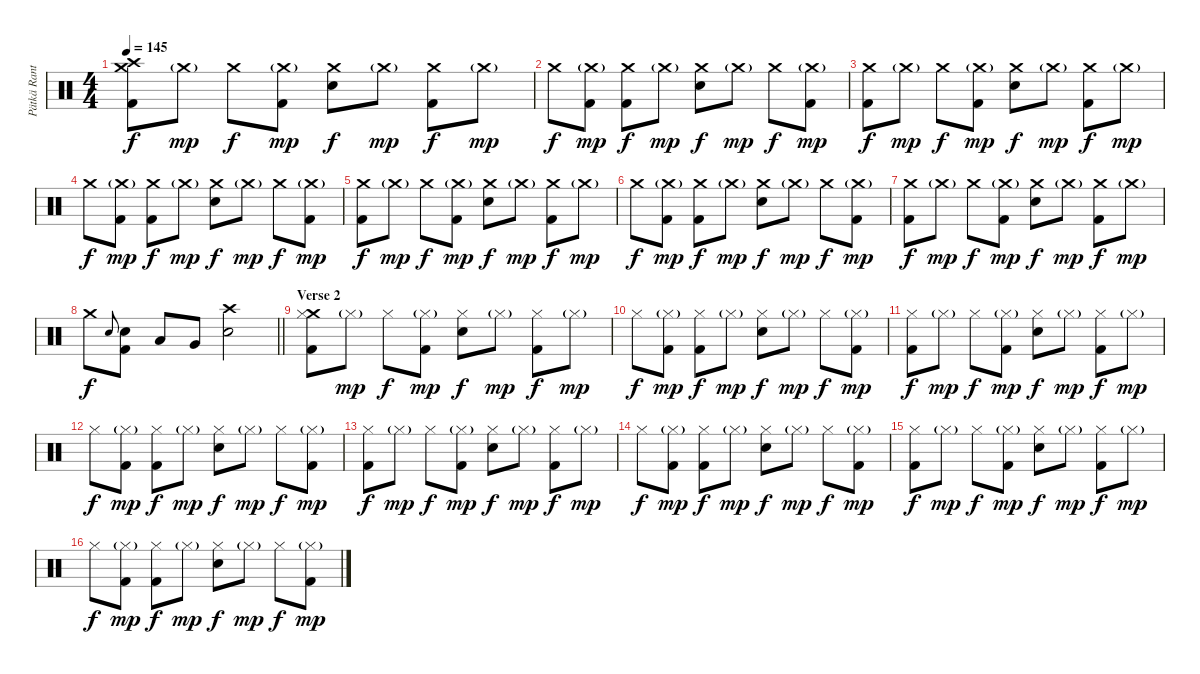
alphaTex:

\track ("Pätkä Rantala (Drums)" "Pätkä Rant") {instrument percussion}
\staff {score}
\articulation defaults
\ts (4 4)
\tempo 145
\clef neutral
\ks c
("Crash high (hit)" "Crash medium (hit)" "Kick (hit) 2").8{dy f} "Crash medium (hit)"{g}.8{dy mp} "Crash medium (hit)".8{dy f} ("Crash medium (hit)"{g} "Kick (hit) 2").8{dy mp} ("Crash medium (hit)" "Snare (hit) 2").8{dy f} "Crash medium (hit)"{g}.8{dy mp} ("Crash medium (hit)" "Kick (hit) 2").8{dy f} "Crash medium (hit)"{g}.8{dy mp} |
"Crash medium (hit)".8{dy f} ("Crash medium (hit)"{g} "Kick (hit) 2").8{dy mp} ("Crash medium (hit)" "Kick (hit) 2").8{dy f} "Crash medium (hit)"{g}.8{dy mp} ("Crash medium (hit)" "Snare (hit) 2").8{dy f} "Crash medium (hit)"{g}.8{dy mp} "Crash medium (hit)".8{dy f} ("Crash medium (hit)"{g} "Kick (hit) 2").8{dy mp} |
("Crash medium (hit)" "Kick (hit) 2").8{dy f} "Crash medium (hit)"{g}.8{dy mp} "Crash medium (hit)".8{dy f} ("Crash medium (hit)"{g} "Kick (hit) 2").8{dy mp} ("Crash medium (hit)" "Snare (hit) 2").8{dy f} "Crash medium (hit)"{g}.8{dy mp} ("Crash medium (hit)" "Kick (hit) 2").8{dy f} "Crash medium (hit)"{g}.8{dy mp} |
"Crash medium (hit)".8{dy f} ("Crash medium (hit)"{g} "Kick (hit) 2").8{dy mp} ("Crash medium (hit)" "Kick (hit) 2").8{dy f} "Crash medium (hit)"{g}.8{dy mp} ("Crash medium (hit)" "Snare (hit) 2").8{dy f} "Crash medium (hit)"{g}.8{dy mp} "Crash medium (hit)".8{dy f} ("Crash medium (hit)"{g} "Kick (hit) 2").8{dy mp} |
("Crash medium (hit)" "Kick (hit) 2").8{dy f} "Crash medium (hit)"{g}.8{dy mp} "Crash medium (hit)".8{dy f} ("Crash medium (hit)"{g} "Kick (hit) 2").8{dy mp} ("Crash medium (hit)" "Snare (hit) 2").8{dy f} "Crash medium (hit)"{g}.8{dy mp} ("Crash medium (hit)" "Kick (hit) 2").8{dy f} "Crash medium (hit)"{g}.8{dy mp} |
"Crash medium (hit)".8{dy f} ("Crash medium (hit)"{g} "Kick (hit) 2").8{dy mp} ("Crash medium (hit)" "Kick (hit) 2").8{dy f} "Crash medium (hit)"{g}.8{dy mp} ("Crash medium (hit)" "Snare (hit) 2").8{dy f} "Crash medium (hit)"{g}.8{dy mp} "Crash medium (hit)".8{dy f} ("Crash medium (hit)"{g} "Kick (hit) 2").8{dy mp} |
("Crash medium (hit)" "Kick (hit) 2").8{dy f} "Crash medium (hit)"{g}.8{dy mp} "Crash medium (hit)".8{dy f} ("Crash medium (hit)"{g} "Kick (hit) 2").8{dy mp} ("Crash medium (hit)" "Snare (hit) 2").8{dy f} "Crash medium (hit)"{g}.8{dy mp} ("Crash medium (hit)" "Kick (hit) 2").8{dy f} "Crash medium (hit)"{g}.8{dy mp} |
\barLineRight lightlight "Crash medium (hit)".8{dy f} "Snare (hit) 2".8{gr onbeat}
("Snare (hit) 2" "Kick (hit) 2").8 "Low Tom (hit)".8 "Very Low Tom (hit)".8 ("Crash high (hit)" "Snare (hit) 2").2 |
\section ("" "Verse 2")
("Crash medium (hit)" "Hi-Hat (closed)" "Kick (hit) 2").8 "Hi-Hat (closed)"{g}.8{dy mp} "Hi-Hat (closed)".8{dy f} ("Hi-Hat (closed)"{g} "Kick (hit) 2").8{dy mp} ("Hi-Hat (closed)" "Snare (hit) 2").8{dy f} "Hi-Hat (closed)"{g}.8{dy mp} ("Hi-Hat (closed)" "Kick (hit) 2").8{dy f} "Hi-Hat (closed)"{g}.8{dy mp} |
"Hi-Hat (closed)".8{dy f} ("Hi-Hat (closed)"{g} "Kick (hit) 2").8{dy mp} ("Hi-Hat (closed)" "Kick (hit) 2").8{dy f} "Hi-Hat (closed)"{g}.8{dy mp} ("Hi-Hat (closed)" "Snare (hit) 2").8{dy f} "Hi-Hat (closed)"{g}.8{dy mp} "Hi-Hat (closed)".8{dy f} ("Hi-Hat (closed)"{g} "Kick (hit) 2").8{dy mp} |
("Hi-Hat (closed)" "Kick (hit) 2").8{dy f} "Hi-Hat (closed)"{g}.8{dy mp} "Hi-Hat (closed)".8{dy f} ("Hi-Hat (closed)"{g} "Kick (hit) 2").8{dy mp} ("Hi-Hat (closed)" "Snare (hit) 2").8{dy f} "Hi-Hat (closed)"{g}.8{dy mp} ("Hi-Hat (closed)" "Kick (hit) 2").8{dy f} "Hi-Hat (closed)"{g}.8{dy mp} |
"Hi-Hat (closed)".8{dy f} ("Hi-Hat (closed)"{g} "Kick (hit) 2").8{dy mp} ("Hi-Hat (closed)" "Kick (hit) 2").8{dy f} "Hi-Hat (closed)"{g}.8{dy mp} ("Hi-Hat (closed)" "Snare (hit) 2").8{dy f} "Hi-Hat (closed)"{g}.8{dy mp} "Hi-Hat (closed)".8{dy f} ("Hi-Hat (closed)"{g} "Kick (hit) 2").8{dy mp} |
("Hi-Hat (closed)" "Kick (hit) 2").8{dy f} "Hi-Hat (closed)"{g}.8{dy mp} "Hi-Hat (closed)".8{dy f} ("Hi-Hat (closed)"{g} "Kick (hit) 2").8{dy mp} ("Hi-Hat (closed)" "Snare (hit) 2").8{dy f} "Hi-Hat (closed)"{g}.8{dy mp} ("Hi-Hat (closed)" "Kick (hit) 2").8{dy f} "Hi-Hat (closed)"{g}.8{dy mp} |
"Hi-Hat (closed)".8{dy f} ("Hi-Hat (closed)"{g} "Kick (hit) 2").8{dy mp} ("Hi-Hat (closed)" "Kick (hit) 2").8{dy f} "Hi-Hat (closed)"{g}.8{dy mp} ("Hi-Hat (closed)" "Snare (hit) 2").8{dy f} "Hi-Hat (closed)"{g}.8{dy mp} "Hi-Hat (closed)".8{dy f} ("Hi-Hat (closed)"{g} "Kick (hit) 2").8{dy mp} |
("Hi-Hat (closed)" "Kick (hit) 2").8{dy f} "Hi-Hat (closed)"{g}.8{dy mp} "Hi-Hat (closed)".8{dy f} ("Hi-Hat (closed)"{g} "Kick (hit) 2").8{dy mp} ("Hi-Hat (closed)" "Snare (hit) 2").8{dy f} "Hi-Hat (closed)"{g}.8{dy mp} ("Hi-Hat (closed)" "Kick (hit) 2").8{dy f} "Hi-Hat (closed)"{g}.8{dy mp} |
"Hi-Hat (closed)".8{dy f} ("Hi-Hat (closed)"{g} "Kick (hit) 2").8{dy mp} ("Hi-Hat (closed)" "Kick (hit) 2").8{dy f} "Hi-Hat (closed)"{g}.8{dy mp} ("Hi-Hat (closed)" "Snare (hit) 2").8{dy f} "Hi-Hat (closed)"{g}.8{dy mp} "Hi-Hat (closed)".8{dy f} ("Hi-Hat (closed)"{g} "Kick (hit) 2").8{dy mp}
